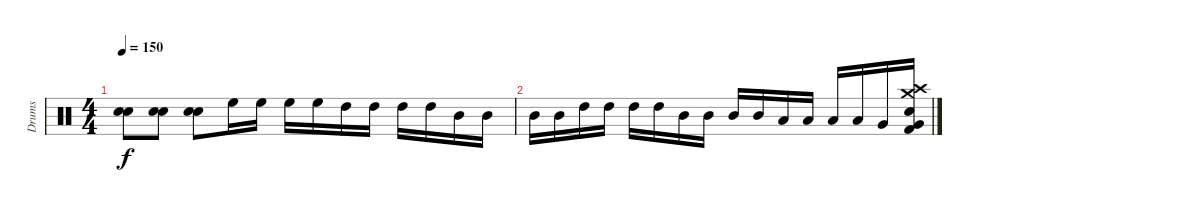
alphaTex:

\track ("Drums" "Drums") {instrument percussion}
\staff {score}
\articulation defaults
\ts (4 4)
\tempo 150
\clef neutral
\ks c
("Snare (hit) 2" "Snare (hit) 2").8{dy f} ("Snare (hit) 2" "Snare (hit) 2").8 ("Snare (hit) 2" "Snare (hit) 2").8 "High Floor Tom (hit)".16 "High Floor Tom (hit)".16 "High Floor Tom (hit)".16 "High Floor Tom (hit)".16 "High Tom (hit)".16 "High Tom (hit)".16 "High Tom (hit)".16 "High Tom (hit)".16 "Mid Tom (hit)".16 "Mid Tom (hit)".16 |
"Mid Tom (hit)".16 "Mid Tom (hit)".16 "High Tom (hit)".16 "High Tom (hit)".16 "High Tom (hit)".16 "High Tom (hit)".16 "Mid Tom (hit)".16 "Mid Tom (hit)".16 "Mid Tom (hit)".16 "Mid Tom (hit)".16 "Low Tom (hit)".16 "Low Tom (hit)".16 "Low Tom (hit)".16 "Low Tom (hit)".16 "Very Low Tom (hit)".16 ("Crash high (hit)" "Crash medium (hit)" "Snare (hit) 2" "Very Low Tom (hit)" "Kick (hit) 2").16
